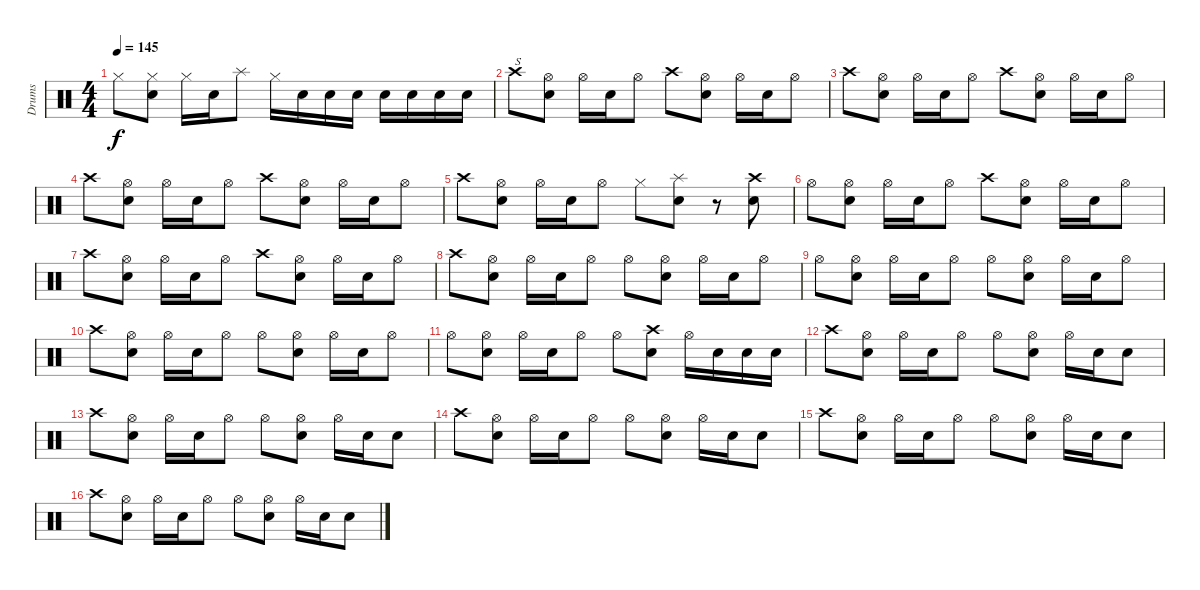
\track ("Drums" "Drums") {instrument percussion}
\staff {score}
\articulation defaults
\ts (4 4)
\tempo 145
\clef neutral
\ks c "Hi-Hat (closed)".8{dy f}
("Hi-Hat (closed)" "Snare (hit) 2").8 "Hi-Hat (closed)".16 "Snare (hit) 2".16 "Splash (hit)".8 "Hi-Hat (closed)".16 "Snare (hit) 2".16 "Snare (hit) 2".16 "Snare (hit) 2".16 "Snare (hit) 2".16 "Snare (hit) 2".16 "Snare (hit) 2".16 "Snare (hit) 2".16 |
"Crash high (hit)".8{txt "S"} ("Hi-Hat (open)" "Snare (hit) 2").8 "Hi-Hat (open)".16 "Snare (hit) 2".16 "Hi-Hat (open)".8 "Crash high (hit)".8 ("Hi-Hat (open)" "Snare (hit) 2").8 "Hi-Hat (open)".16 "Snare (hit) 2".16 "Hi-Hat (open)".8 |
"Crash high (hit)".8 ("Hi-Hat (open)" "Snare (hit) 2").8 "Hi-Hat (open)".16 "Snare (hit) 2".16 "Hi-Hat (open)".8 "Crash high (hit)".8 ("Hi-Hat (open)" "Snare (hit) 2").8 "Hi-Hat (open)".16 "Snare (hit) 2".16 "Hi-Hat (open)".8 |
"Crash high (hit)".8 ("Hi-Hat (open)" "Snare (hit) 2").8 "Hi-Hat (open)".16 "Snare (hit) 2".16 "Hi-Hat (open)".8 "Crash high (hit)".8 ("Hi-Hat (open)" "Snare (hit) 2").8 "Hi-Hat (open)".16 "Snare (hit) 2".16 "Hi-Hat (open)".8 |
"Crash high (hit)".8 ("Hi-Hat (open)" "Snare (hit) 2").8 "Hi-Hat (open)".16 "Snare (hit) 2".16 "Hi-Hat (open)".8 "Hi-Hat (closed)".8 ("Splash (hit)" "Snare (hit) 2").8 r.8 ("Crash high (hit)" "Snare (hit) 2").8 |
"Hi-Hat (open)".8 ("Hi-Hat (open)" "Snare (hit) 2").8 "Hi-Hat (open)".16 "Snare (hit) 2".16 "Hi-Hat (open)".8 "Crash high (hit)".8 ("Hi-Hat (open)" "Snare (hit) 2").8 "Hi-Hat (open)".16 "Snare (hit) 2".16 "Hi-Hat (open)".8 |
"Crash high (hit)".8 ("Hi-Hat (open)" "Snare (hit) 2").8 "Hi-Hat (open)".16 "Snare (hit) 2".16 "Hi-Hat (open)".8 "Crash high (hit)".8 ("Hi-Hat (open)" "Snare (hit) 2").8 "Hi-Hat (open)".16 "Snare (hit) 2".16 "Hi-Hat (open)".8 |
"Crash high (hit)".8 ("Hi-Hat (open)" "Snare (hit) 2").8 "Hi-Hat (open)".16 "Snare (hit) 2".16 "Hi-Hat (open)".8 "Hi-Hat (open)".8 ("Hi-Hat (open)" "Snare (hit) 2").8 "Hi-Hat (open)".16 "Snare (hit) 2".16 "Hi-Hat (open)".8 |
"Hi-Hat (open)".8 ("Hi-Hat (open)" "Snare (hit) 2").8 "Hi-Hat (open)".16 "Snare (hit) 2".16 "Hi-Hat (open)".8 "Hi-Hat (open)".8 ("Hi-Hat (open)" "Snare (hit) 2").8 "Hi-Hat (open)".16 "Snare (hit) 2".16 "Hi-Hat (open)".8 |
"Crash high (hit)".8 ("Hi-Hat (open)" "Snare (hit) 2").8 "Hi-Hat (open)".16 "Snare (hit) 2".16 "Hi-Hat (open)".8 "Hi-Hat (open)".8 ("Hi-Hat (open)" "Snare (hit) 2").8 "Hi-Hat (open)".16 "Snare (hit) 2".16 "Hi-Hat (open)".8 |
"Hi-Hat (open)".8 ("Hi-Hat (open)" "Snare (hit) 2").8 "Hi-Hat (open)".16 "Snare (hit) 2".16 "Hi-Hat (open)".8 "Hi-Hat (open)".8 ("Crash high (hit)" "Snare (hit) 2").8 "Hi-Hat (open)".16 "Snare (hit) 2".16 "Snare (hit) 2".16 "Snare (hit) 2".16 |
"Crash high (hit)".8 ("Hi-Hat (open)" "Snare (hit) 2").8 "Hi-Hat (open)".16 "Snare (hit) 2".16 "Hi-Hat (open)".8 "Hi-Hat (open)".8 ("Hi-Hat (open)" "Snare (hit) 2").8 "Hi-Hat (open)".16 "Snare (hit) 2".16 "Snare (hit) 2".8 |
"Crash high (hit)".8 ("Hi-Hat (open)" "Snare (hit) 2").8 "Hi-Hat (open)".16 "Snare (hit) 2".16 "Hi-Hat (open)".8 "Hi-Hat (open)".8 ("Hi-Hat (open)" "Snare (hit) 2").8 "Hi-Hat (open)".16 "Snare (hit) 2".16 "Snare (hit) 2".8 |
"Crash high (hit)".8 ("Hi-Hat (open)" "Snare (hit) 2").8 "Hi-Hat (open)".16 "Snare (hit) 2".16 "Hi-Hat (open)".8 "Hi-Hat (open)".8 ("Hi-Hat (open)" "Snare (hit) 2").8 "Hi-Hat (open)".16 "Snare (hit) 2".16 "Snare (hit) 2".8 |
"Crash high (hit)".8 ("Hi-Hat (open)" "Snare (hit) 2").8 "Hi-Hat (open)".16 "Snare (hit) 2".16 "Hi-Hat (open)".8 "Hi-Hat (open)".8 ("Hi-Hat (open)" "Snare (hit) 2").8 "Hi-Hat (open)".16 "Snare (hit) 2".16 "Snare (hit) 2".8 |
"Crash high (hit)".8 ("Hi-Hat (open)" "Snare (hit) 2").8 "Hi-Hat (open)".16 "Snare (hit) 2".16 "Hi-Hat (open)".8 "Hi-Hat (open)".8 ("Hi-Hat (open)" "Snare (hit) 2").8 "Hi-Hat (open)".16 "Snare (hit) 2".16 "Snare (hit) 2".8
